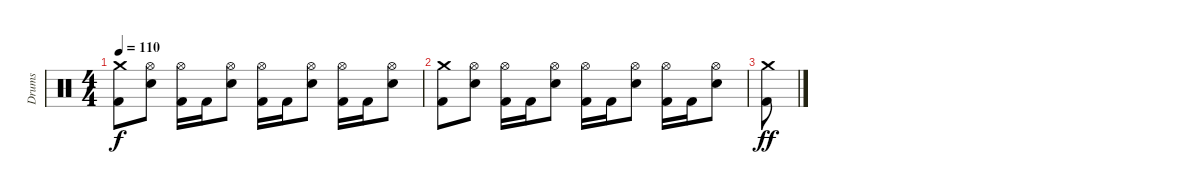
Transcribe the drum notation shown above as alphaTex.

\track ("Drums" "Drums") {instrument percussion}
\staff {score}
\articulation defaults
\ts (4 4)
\tempo 110
\clef neutral
\ks c
("Crash medium (hit)" "Kick (hit) 2").8{dy f} ("Hi-Hat (open)" "Snare (hit) 2").8 ("Hi-Hat (open)" "Kick (hit) 2").16 "Kick (hit) 2".16 ("Hi-Hat (open)" "Snare (hit) 2").8 ("Hi-Hat (open)" "Kick (hit) 2").16 "Kick (hit) 2".16 ("Hi-Hat (open)" "Snare (hit) 2").8 ("Hi-Hat (open)" "Kick (hit) 2").16 "Kick (hit) 2".16 ("Hi-Hat (open)" "Snare (hit) 2").8 |
("Crash medium (hit)" "Kick (hit) 2").8 ("Hi-Hat (open)" "Snare (hit) 2").8 ("Hi-Hat (open)" "Kick (hit) 2").16 "Kick (hit) 2".16 ("Hi-Hat (open)" "Snare (hit) 2").8 ("Hi-Hat (open)" "Kick (hit) 2").16 "Kick (hit) 2".16 ("Hi-Hat (open)" "Snare (hit) 2").8 ("Hi-Hat (open)" "Kick (hit) 2").16 "Kick (hit) 2".16 ("Hi-Hat (open)" "Snare (hit) 2").8 |
("Crash medium (hit)" "Kick (hit) 2").8{dy ff}
